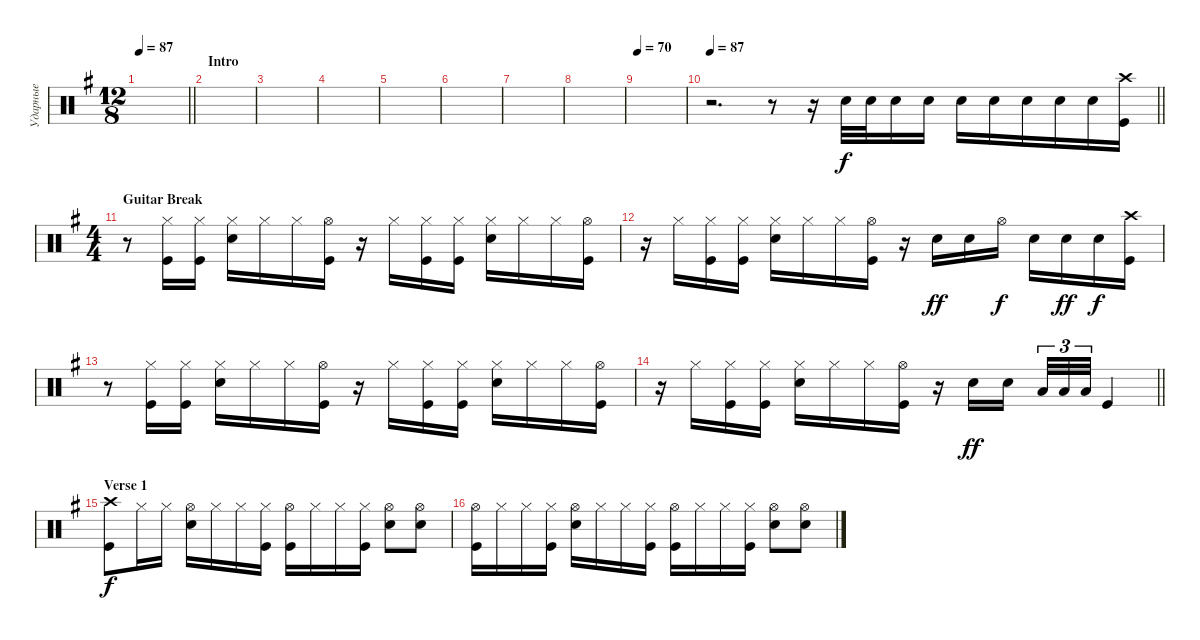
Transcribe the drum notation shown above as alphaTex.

\track ("Ударные" "Ударные") {instrument percussion}
\staff {score}
\articulation defaults
\ts (12 8)
\tempo 87
\clef neutral
\barLineRight lightlight
\ks eminor
|
\section ("" "Intro")
|
|
|
|
|
|
|
\tempo 70
|
\tempo 87
\barLineRight lightlight
r.2{d} r.8 r.16 "Snare (hit) 2".32 "Snare (hit) 2".32 "Snare (hit) 2".16 "Snare (hit) 2".16 "Snare (hit) 2".16 "Snare (hit) 2".16 "Snare (hit) 2".16 "Snare (hit) 2".16 "Snare (hit) 2".16 ("Kick (hit)" "Crash high (hit)").16 |
\ts (4 4)
\section ("" "Guitar Break")
r.8 ("Kick (hit)" "Hi-Hat (closed)").16 ("Kick (hit)" "Hi-Hat (closed)").16 ("Snare (hit) 2" "Hi-Hat (closed)").16 "Hi-Hat (closed)".16 "Hi-Hat (closed)".16 ("Hi-Hat (open)" "Kick (hit)").16 r.16 "Hi-Hat (closed)".16 ("Hi-Hat (closed)" "Kick (hit)").16 ("Hi-Hat (closed)" "Kick (hit)").16 ("Hi-Hat (closed)" "Snare (hit) 2").16 "Hi-Hat (closed)".16 "Hi-Hat (closed)".16 ("Kick (hit)" "Hi-Hat (open)").16 |
r.16 "Hi-Hat (closed)".16 ("Hi-Hat (closed)" "Kick (hit)").16 ("Hi-Hat (closed)" "Kick (hit)").16 ("Hi-Hat (closed)" "Snare (hit) 2").16 "Hi-Hat (closed)".16 "Hi-Hat (closed)".16 ("Kick (hit)" "Hi-Hat (open)").16 r.16 "Snare (hit) 2".16{dy ff} "Snare (hit) 2".16 "Hi-Hat (open)".16{dy f} "Snare (hit) 2".16 "Snare (hit) 2".16{dy ff} "Snare (hit) 2".16{dy f} ("Kick (hit)" "Crash high (hit)").16 |
r.8 ("Kick (hit)" "Hi-Hat (closed)").16 ("Kick (hit)" "Hi-Hat (closed)").16 ("Snare (hit) 2" "Hi-Hat (closed)").16 "Hi-Hat (closed)".16 "Hi-Hat (closed)".16 ("Hi-Hat (open)" "Kick (hit)").16 r.16 "Hi-Hat (closed)".16 ("Hi-Hat (closed)" "Kick (hit)").16 ("Hi-Hat (closed)" "Kick (hit)").16 ("Hi-Hat (closed)" "Snare (hit) 2").16 "Hi-Hat (closed)".16 "Hi-Hat (closed)".16 ("Kick (hit)" "Hi-Hat (open)").16 |
\barLineRight lightlight
r.16 "Hi-Hat (closed)".16 ("Kick (hit)" "Hi-Hat (closed)").16 ("Kick (hit)" "Hi-Hat (closed)").16 ("Snare (hit) 2" "Hi-Hat (closed)").16 "Hi-Hat (closed)".16 "Hi-Hat (closed)".16 ("Hi-Hat (open)" "Kick (hit)").16 r.16 "Snare (hit) 2".16{dy ff} "Snare (hit) 2".16{beam splitsecondary} "Low Tom (hit)".32{tu (3 2)} "Low Tom (hit)".32{tu (3 2)} "Low Tom (hit)".32{tu (3 2)} "Kick (hit)".4 |
\section ("" "Verse 1")
("Kick (hit)" "Crash high (hit)").8{dy f} "Hi-Hat (closed)".16 "Hi-Hat (closed)".16 ("Snare (hit) 2" "Hi-Hat (open)").16 "Hi-Hat (closed)".16 "Hi-Hat (closed)".16 ("Hi-Hat (closed)" "Kick (hit)").16 ("Hi-Hat (open)" "Kick (hit)").16 "Hi-Hat (closed)".16 "Hi-Hat (closed)".16 ("Hi-Hat (closed)" "Kick (hit)").16 ("Hi-Hat (open)" "Snare (hit) 2").8 ("Hi-Hat (open)" "Snare (hit) 2").8 |
("Kick (hit)" "Hi-Hat (open)").16 "Hi-Hat (closed)".16 "Hi-Hat (closed)".16 ("Hi-Hat (closed)" "Kick (hit)").16 ("Snare (hit) 2" "Hi-Hat (open)").16 "Hi-Hat (closed)".16 "Hi-Hat (closed)".16 ("Hi-Hat (closed)" "Kick (hit)").16 ("Hi-Hat (open)" "Kick (hit)").16 "Hi-Hat (closed)".16 "Hi-Hat (closed)".16 ("Hi-Hat (closed)" "Kick (hit)").16 ("Hi-Hat (open)" "Snare (hit) 2").8 ("Hi-Hat (open)" "Snare (hit) 2").8
